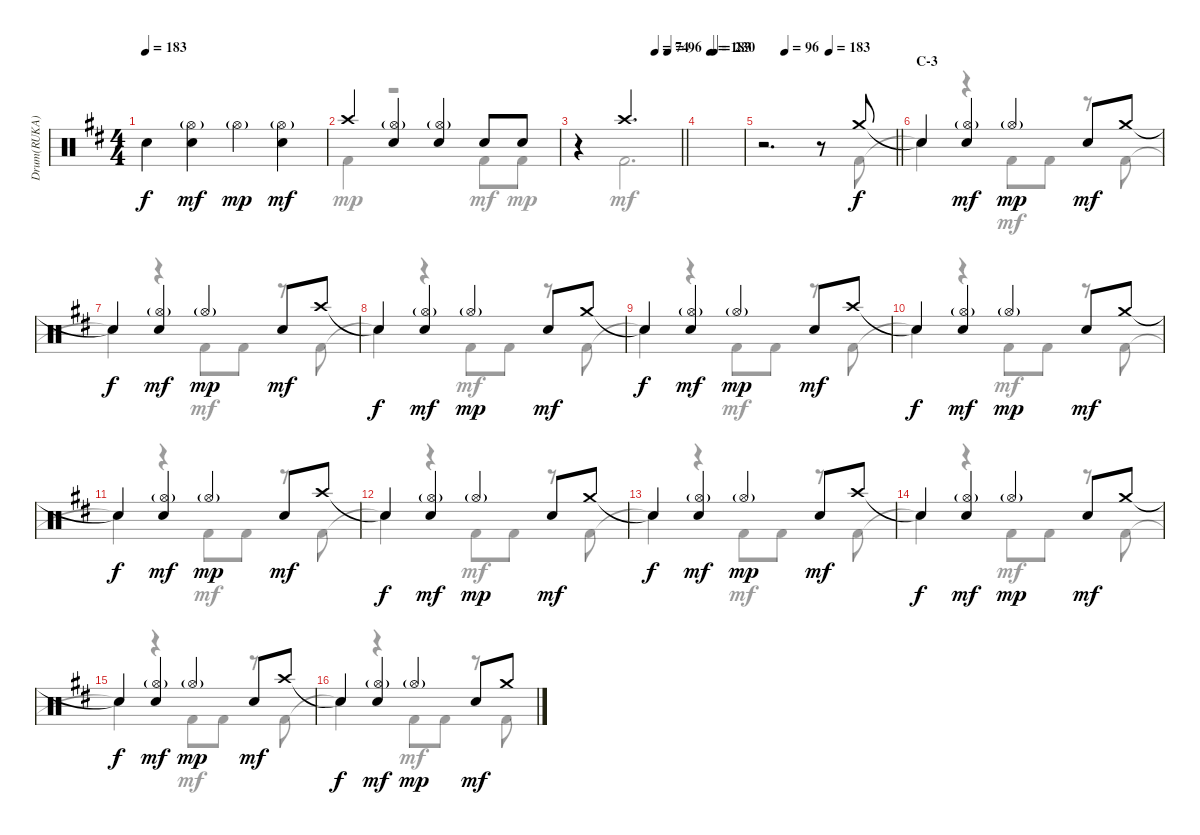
\track ("Drum(RUKA)" "Drum(RUKA)") {instrument percussion}
\staff {score}
\articulation defaults
\voice
\ts (4 4)
\tempo 183
\clef neutral
\ks d "Snare (hit)"{t}.4{dy f}
("Hi-Hat (open)"{g} "Snare (hit) 2").4{dy mf} "Hi-Hat (open)"{g}.4{dy mp} ("Hi-Hat (open)"{g} "Snare (hit) 2").4{dy mf} |
"Crash high (hit)".4 ("Hi-Hat (open)"{g} "Snare (hit) 2").4 ("Hi-Hat (open)"{g} "Snare (hit) 2").4 "Snare (hit) 2".8 "Snare (hit) 2".8 |
\tempo (74 0.75)
\tempo (96 0.875)
\barLineRight lightlight
r.4 "Crash high (hit)".2{d} |
\tempo (183 0.25)
\tempo (230 0.3333333333333333)
|
\tempo (96 0.16666666666666666)
\tempo (183 0.5)
\barLineRight lightlight
r.2{d} r.8 "Crash medium (hit)".8{dy f} |
\section ("" "C-3")
"Snare (hit)"{t}.4 ("Hi-Hat (open)"{g} "Snare (hit) 2").4{dy mf} "Hi-Hat (open)"{g}.4{dy mp} "Snare (hit) 2".8{dy mf} "Crash medium (hit)".8 |
"Snare (hit)"{t}.4{dy f} ("Hi-Hat (open)"{g} "Snare (hit) 2").4{dy mf} "Hi-Hat (open)"{g}.4{dy mp} "Snare (hit) 2".8{dy mf} "Crash high (hit)".8 |
"Snare (hit)"{t}.4{dy f} ("Hi-Hat (open)"{g} "Snare (hit) 2").4{dy mf} "Hi-Hat (open)"{g}.4{dy mp} "Snare (hit) 2".8{dy mf} "Crash medium (hit)".8 |
"Snare (hit)"{t}.4{dy f} ("Hi-Hat (open)"{g} "Snare (hit) 2").4{dy mf} "Hi-Hat (open)"{g}.4{dy mp} "Snare (hit) 2".8{dy mf} "Crash high (hit)".8 |
"Snare (hit)"{t}.4{dy f} ("Hi-Hat (open)"{g} "Snare (hit) 2").4{dy mf} "Hi-Hat (open)"{g}.4{dy mp} "Snare (hit) 2".8{dy mf} "Crash medium (hit)".8 |
"Snare (hit)"{t}.4{dy f} ("Hi-Hat (open)"{g} "Snare (hit) 2").4{dy mf} "Hi-Hat (open)"{g}.4{dy mp} "Snare (hit) 2".8{dy mf} "Crash high (hit)".8 |
"Snare (hit)"{t}.4{dy f} ("Hi-Hat (open)"{g} "Snare (hit) 2").4{dy mf} "Hi-Hat (open)"{g}.4{dy mp} "Snare (hit) 2".8{dy mf} "Crash medium (hit)".8 |
"Snare (hit)"{t}.4{dy f} ("Hi-Hat (open)"{g} "Snare (hit) 2").4{dy mf} "Hi-Hat (open)"{g}.4{dy mp} "Snare (hit) 2".8{dy mf} "Crash high (hit)".8 |
"Snare (hit)"{t}.4{dy f} ("Hi-Hat (open)"{g} "Snare (hit) 2").4{dy mf} "Hi-Hat (open)"{g}.4{dy mp} "Snare (hit) 2".8{dy mf} "Crash medium (hit)".8 |
"Snare (hit)"{t}.4{dy f} ("Hi-Hat (open)"{g} "Snare (hit) 2").4{dy mf} "Hi-Hat (open)"{g}.4{dy mp} "Snare (hit) 2".8{dy mf} "Crash high (hit)".8 |
"Snare (hit)"{t}.4{dy f} ("Hi-Hat (open)"{g} "Snare (hit) 2").4{dy mf} "Hi-Hat (open)"{g}.4{dy mp} "Snare (hit) 2".8{dy mf} "Crash medium (hit)".8
\voice
\clef neutral
\ottava regular
\simile none
\ks d
|
"Kick (hit) 2".4{dy mp} r.2 "Kick (hit) 2".8{dy mf} "Kick (hit) 2".8{dy mp} |
\barLineRight lightlight
r.4 "Kick (hit) 2".2{d dy mf} |
|
\barLineRight lightlight
r.2{d} r.8 "Kick (hit) 2".8{dy f} |
"Snare (hit)"{t}.4 r.4 "Kick (hit) 2".8{dy mf} "Kick (hit) 2".8 r.8 "Kick (hit) 2".8 |
"Snare (hit)"{t}.4{dy f} r.4 "Kick (hit) 2".8{dy mf} "Kick (hit) 2".8 r.8 "Kick (hit) 2".8 |
"Snare (hit)"{t}.4{dy f} r.4 "Kick (hit) 2".8{dy mf} "Kick (hit) 2".8 r.8 "Kick (hit) 2".8 |
"Snare (hit)"{t}.4{dy f} r.4 "Kick (hit) 2".8{dy mf} "Kick (hit) 2".8 r.8 "Kick (hit) 2".8 |
"Snare (hit)"{t}.4{dy f} r.4 "Kick (hit) 2".8{dy mf} "Kick (hit) 2".8 r.8 "Kick (hit) 2".8 |
"Snare (hit)"{t}.4{dy f} r.4 "Kick (hit) 2".8{dy mf} "Kick (hit) 2".8 r.8 "Kick (hit) 2".8 |
"Snare (hit)"{t}.4{dy f} r.4 "Kick (hit) 2".8{dy mf} "Kick (hit) 2".8 r.8 "Kick (hit) 2".8 |
"Snare (hit)"{t}.4{dy f} r.4 "Kick (hit) 2".8{dy mf} "Kick (hit) 2".8 r.8 "Kick (hit) 2".8 |
"Snare (hit)"{t}.4{dy f} r.4 "Kick (hit) 2".8{dy mf} "Kick (hit) 2".8 r.8 "Kick (hit) 2".8 |
"Snare (hit)"{t}.4{dy f} r.4 "Kick (hit) 2".8{dy mf} "Kick (hit) 2".8 r.8 "Kick (hit) 2".8 |
"Snare (hit)"{t}.4{dy f} r.4 "Kick (hit) 2".8{dy mf} "Kick (hit) 2".8 r.8 "Kick (hit) 2".8
